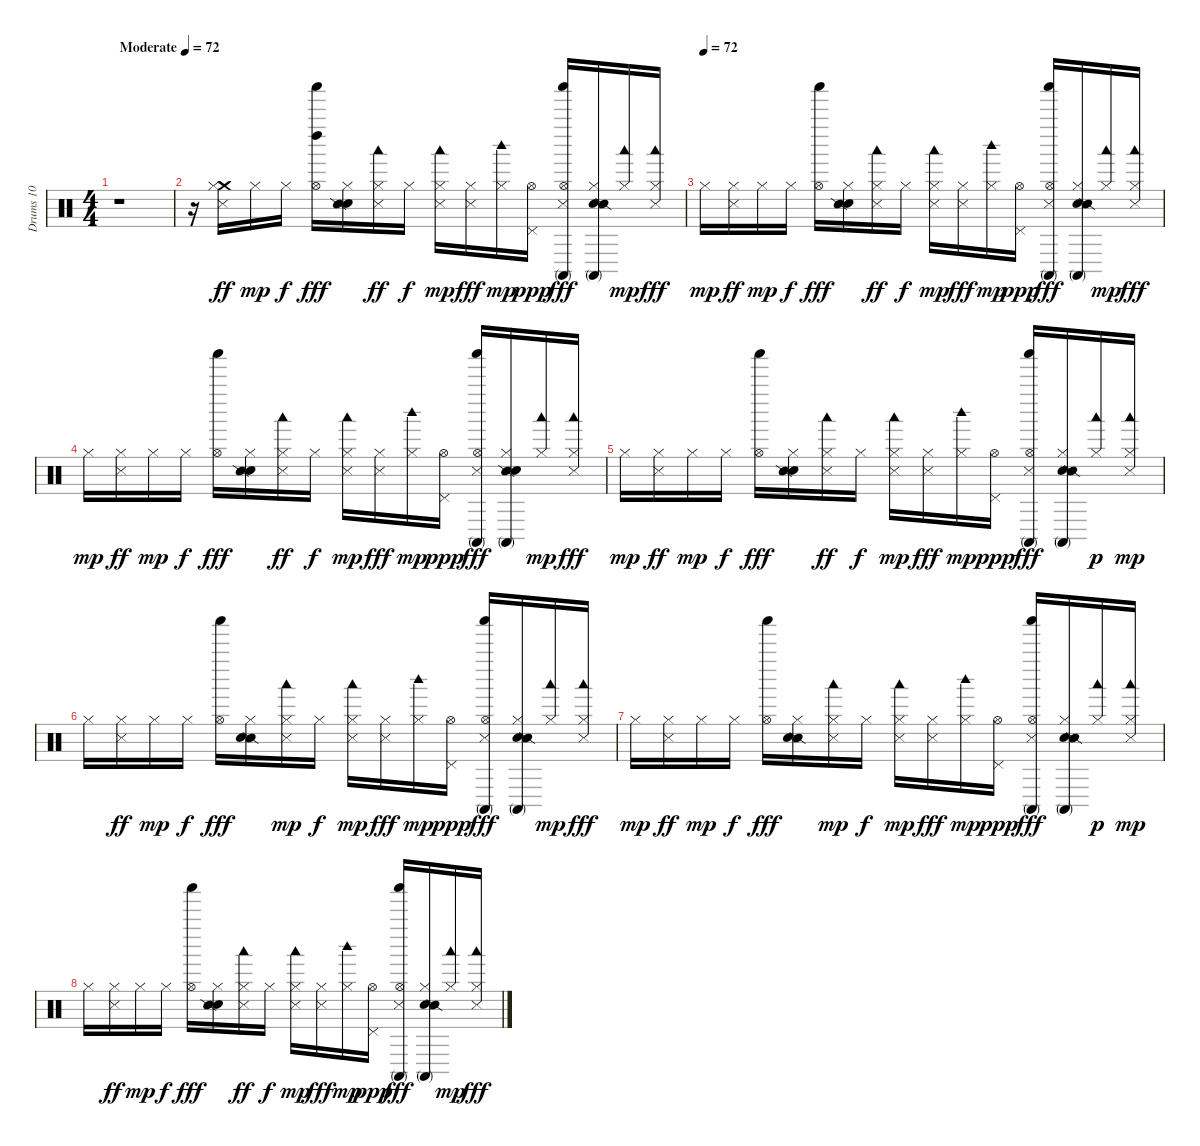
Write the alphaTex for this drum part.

\track ("Drums 10" "Drums 10") {instrument percussion}
\staff {score}
\articulation defaults
\ts (4 4)
\tempo (72 "Moderate")
\clef neutral
\ks c
r.1{dy ff} |
r.16 ("Crash medium (hit)" "Hi-Hat (closed)" "Metronome (hit)").16 "Hi-Hat (closed)".16{dy mp} "Hi-Hat (closed)".16{dy f} ("Left Maraca (hit)" "Hi-Hat (open)" "Shaker (hit)").16{dy fff} ("Metronome (bell)" "Hi-Hat (closed)" "Snare (side stick) 2").16 ("Woodblock low (hit)" "Hi-Hat (closed)" "Metronome (hit)").16{dy ff} "Hi-Hat (closed)".16{dy f} ("Woodblock low (hit)" "Hi-Hat (closed)" "Metronome (hit)").16{dy mp} ("Hi-Hat (closed)" "Metronome (hit)").16{dy fff} ("Woodblock high (hit)" "Hi-Hat (closed)").16{dy mp} ("Hi-Hat (open)" "Pedal Hi-Hat (hit)").16{dy ppp} ("Hi-Hat (open)" "Metronome (hit)" "Conga high (mute)" "Shaker (hit)").16{dy fff} ("Metronome (bell)" "Conga high (mute)" "Hi-Hat (closed)" "Snare (side stick) 2").16 ("Woodblock low (hit)" "Hi-Hat (closed)").16{dy mp} ("Woodblock low (hit)" "Hi-Hat (closed)" "Metronome (hit)").16{dy fff} |
\tempo (72)
"Hi-Hat (closed)".16{dy mp} ("Hi-Hat (closed)" "Metronome (hit)").16{dy ff} "Hi-Hat (closed)".16{dy mp} "Hi-Hat (closed)".16{dy f} ("Hi-Hat (open)" "Shaker (hit)").16{dy fff} ("Metronome (bell)" "Snare (side stick) 2" "Hi-Hat (closed)").16 ("Woodblock low (hit)" "Hi-Hat (closed)" "Metronome (hit)").16{dy ff} "Hi-Hat (closed)".16{dy f} ("Woodblock low (hit)" "Hi-Hat (closed)" "Metronome (hit)").16{dy mp} ("Hi-Hat (closed)" "Metronome (hit)").16{dy fff} ("Woodblock high (hit)" "Hi-Hat (closed)").16{dy mp} ("Hi-Hat (open)" "Pedal Hi-Hat (hit)").16{dy ppp} ("Conga high (mute)" "Hi-Hat (open)" "Metronome (hit)" "Shaker (hit)").16{dy fff} ("Metronome (bell)" "Conga high (mute)" "Snare (side stick) 2" "Hi-Hat (closed)").16 ("Woodblock low (hit)" "Hi-Hat (closed)").16{dy mp} ("Woodblock low (hit)" "Hi-Hat (closed)" "Metronome (hit)").16{dy fff} |
"Hi-Hat (closed)".16{dy mp} ("Hi-Hat (closed)" "Metronome (hit)").16{dy ff} "Hi-Hat (closed)".16{dy mp} "Hi-Hat (closed)".16{dy f} ("Hi-Hat (open)" "Shaker (hit)").16{dy fff} ("Metronome (bell)" "Hi-Hat (closed)" "Snare (side stick) 2").16 ("Woodblock low (hit)" "Hi-Hat (closed)" "Metronome (hit)").16{dy ff} "Hi-Hat (closed)".16{dy f} ("Metronome (hit)" "Hi-Hat (closed)" "Woodblock low (hit)").16{dy mp} ("Metronome (hit)" "Hi-Hat (closed)").16{dy fff} ("Woodblock high (hit)" "Hi-Hat (closed)").16{dy mp} ("Hi-Hat (open)" "Pedal Hi-Hat (hit)").16{dy ppp} ("Hi-Hat (open)" "Conga high (mute)" "Metronome (hit)" "Shaker (hit)").16{dy fff} ("Snare (side stick) 2" "Metronome (bell)" "Hi-Hat (closed)" "Conga high (mute)").16 ("Hi-Hat (closed)" "Woodblock low (hit)").16{dy mp} ("Hi-Hat (closed)" "Woodblock low (hit)" "Metronome (hit)").16{dy fff} |
"Hi-Hat (closed)".16{dy mp} ("Metronome (hit)" "Hi-Hat (closed)").16{dy ff} "Hi-Hat (closed)".16{dy mp} "Hi-Hat (closed)".16{dy f} ("Hi-Hat (open)" "Shaker (hit)").16{dy fff} ("Metronome (bell)" "Hi-Hat (closed)" "Snare (side stick) 2").16 ("Hi-Hat (closed)" "Woodblock low (hit)" "Metronome (hit)").16{dy ff} "Hi-Hat (closed)".16{dy f} ("Metronome (hit)" "Woodblock low (hit)" "Hi-Hat (closed)").16{dy mp} ("Metronome (hit)" "Hi-Hat (closed)").16{dy fff} ("Hi-Hat (closed)" "Woodblock high (hit)").16{dy mp} ("Hi-Hat (open)" "Pedal Hi-Hat (hit)").16{dy ppp} ("Metronome (hit)" "Conga high (mute)" "Hi-Hat (open)" "Shaker (hit)").16{dy fff} ("Conga high (mute)" "Metronome (bell)" "Snare (side stick) 2" "Hi-Hat (closed)").16 ("Hi-Hat (closed)" "Woodblock low (hit)").16{dy p} ("Metronome (hit)" "Woodblock low (hit)" "Hi-Hat (closed)").16{dy mp} |
"Hi-Hat (closed)".16 ("Hi-Hat (closed)" "Metronome (hit)").16{dy ff} "Hi-Hat (closed)".16{dy mp} "Hi-Hat (closed)".16{dy f} ("Hi-Hat (open)" "Shaker (hit)").16{dy fff} ("Hi-Hat (closed)" "Snare (side stick) 2" "Metronome (bell)").16 ("Woodblock low (hit)" "Metronome (hit)" "Hi-Hat (closed)").16{dy mp} "Hi-Hat (closed)".16{dy f} ("Hi-Hat (closed)" "Woodblock low (hit)" "Metronome (hit)").16{dy mp} ("Metronome (hit)" "Hi-Hat (closed)").16{dy fff} ("Woodblock high (hit)" "Hi-Hat (closed)").16{dy mp} ("Hi-Hat (open)" "Pedal Hi-Hat (hit)").16{dy ppp} ("Metronome (hit)" "Conga high (mute)" "Hi-Hat (open)" "Shaker (hit)").16{dy fff} ("Metronome (bell)" "Hi-Hat (closed)" "Conga high (mute)" "Snare (side stick) 2").16 ("Woodblock low (hit)" "Hi-Hat (closed)").16{dy mp} ("Woodblock low (hit)" "Metronome (hit)" "Hi-Hat (closed)").16{dy fff} |
"Hi-Hat (closed)".16{dy mp} ("Metronome (hit)" "Hi-Hat (closed)").16{dy ff} "Hi-Hat (closed)".16{dy mp} "Hi-Hat (closed)".16{dy f} ("Hi-Hat (open)" "Shaker (hit)").16{dy fff} ("Snare (side stick) 2" "Hi-Hat (closed)" "Metronome (bell)").16 ("Metronome (hit)" "Hi-Hat (closed)" "Woodblock low (hit)").16{dy mp} "Hi-Hat (closed)".16{dy f} ("Woodblock low (hit)" "Hi-Hat (closed)" "Metronome (hit)").16{dy mp} ("Hi-Hat (closed)" "Metronome (hit)").16{dy fff} ("Woodblock high (hit)" "Hi-Hat (closed)").16{dy mp} ("Hi-Hat (open)" "Pedal Hi-Hat (hit)").16{dy ppp} ("Conga high (mute)" "Hi-Hat (open)" "Metronome (hit)" "Shaker (hit)").16{dy fff} ("Metronome (bell)" "Snare (side stick) 2" "Hi-Hat (closed)" "Conga high (mute)").16 ("Hi-Hat (closed)" "Woodblock low (hit)").16{dy p} ("Metronome (hit)" "Hi-Hat (closed)" "Woodblock low (hit)").16{dy mp} |
"Hi-Hat (closed)".16 ("Metronome (hit)" "Hi-Hat (closed)").16{dy ff} "Hi-Hat (closed)".16{dy mp} "Hi-Hat (closed)".16{dy f} ("Hi-Hat (open)" "Shaker (hit)").16{dy fff} ("Metronome (bell)" "Hi-Hat (closed)" "Snare (side stick) 2").16 ("Woodblock low (hit)" "Hi-Hat (closed)" "Metronome (hit)").16{dy ff} "Hi-Hat (closed)".16{dy f} ("Woodblock low (hit)" "Hi-Hat (closed)" "Metronome (hit)").16{dy mp} ("Hi-Hat (closed)" "Metronome (hit)").16{dy fff} ("Hi-Hat (closed)" "Woodblock high (hit)").16{dy mp} ("Hi-Hat (open)" "Pedal Hi-Hat (hit)").16{dy ppp} ("Conga high (mute)" "Metronome (hit)" "Hi-Hat (open)" "Shaker (hit)").16{dy fff} ("Metronome (bell)" "Conga high (mute)" "Snare (side stick) 2" "Hi-Hat (closed)").16 ("Woodblock low (hit)" "Hi-Hat (closed)").16{dy mp} ("Woodblock low (hit)" "Metronome (hit)" "Hi-Hat (closed)").16{dy fff}
